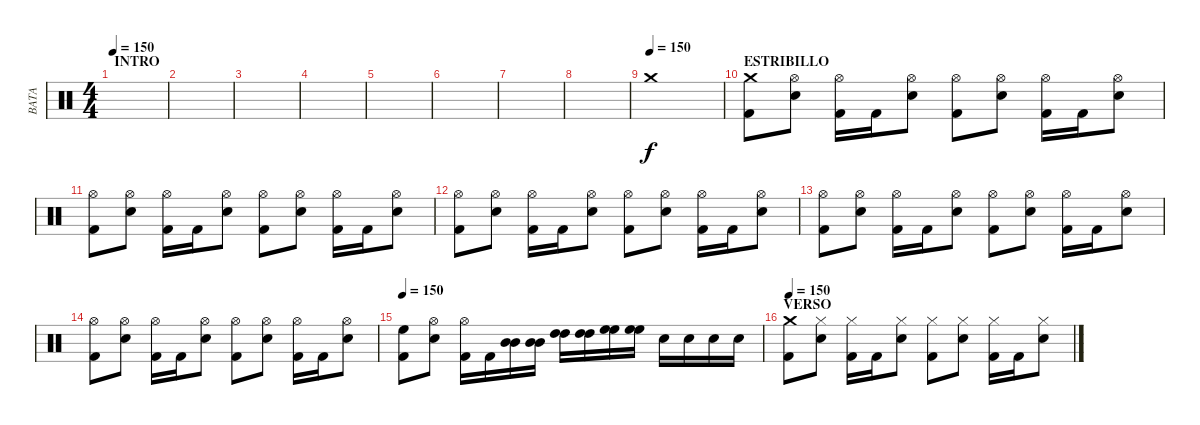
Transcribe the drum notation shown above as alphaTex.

\track ("BATA" "BATA") {instrument percussion}
\staff {score}
\articulation defaults
\ts (4 4)
\section ("" "INTRO")
\tempo 150
\clef neutral
\ks c
|
|
|
|
|
|
|
|
\tempo (150)
"Crash medium (hit)".1 |
\section ("" "ESTRIBILLO")
("Crash medium (hit)" "Kick (hit) 2").8 ("Hi-Hat (open)" "Snare (hit) 2").8 ("Hi-Hat (open)" "Kick (hit) 2").16 "Kick (hit) 2".16 ("Hi-Hat (open)" "Snare (hit) 2").8 ("Hi-Hat (open)" "Kick (hit) 2").8 ("Hi-Hat (open)" "Snare (hit) 2").8 ("Hi-Hat (open)" "Kick (hit) 2").16 "Kick (hit) 2".16 ("Hi-Hat (open)" "Snare (hit) 2").8 |
("Hi-Hat (open)" "Kick (hit) 2").8 ("Hi-Hat (open)" "Snare (hit) 2").8 ("Hi-Hat (open)" "Kick (hit) 2").16 "Kick (hit) 2".16 ("Hi-Hat (open)" "Snare (hit) 2").8 ("Hi-Hat (open)" "Kick (hit) 2").8 ("Hi-Hat (open)" "Snare (hit) 2").8 ("Hi-Hat (open)" "Kick (hit) 2").16 "Kick (hit) 2".16 ("Hi-Hat (open)" "Snare (hit) 2").8 |
("Hi-Hat (open)" "Kick (hit) 2").8 ("Hi-Hat (open)" "Snare (hit) 2").8 ("Hi-Hat (open)" "Kick (hit) 2").16 "Kick (hit) 2".16 ("Hi-Hat (open)" "Snare (hit) 2").8 ("Hi-Hat (open)" "Kick (hit) 2").8 ("Hi-Hat (open)" "Snare (hit) 2").8 ("Hi-Hat (open)" "Kick (hit) 2").16 "Kick (hit) 2".16 ("Hi-Hat (open)" "Snare (hit) 2").8 |
("Hi-Hat (open)" "Kick (hit) 2").8 ("Hi-Hat (open)" "Snare (hit) 2").8 ("Hi-Hat (open)" "Kick (hit) 2").16 "Kick (hit) 2".16 ("Hi-Hat (open)" "Snare (hit) 2").8 ("Hi-Hat (open)" "Kick (hit) 2").8 ("Hi-Hat (open)" "Snare (hit) 2").8 ("Hi-Hat (open)" "Kick (hit) 2").16 "Kick (hit) 2".16 ("Hi-Hat (open)" "Snare (hit) 2").8 |
("Hi-Hat (open)" "Kick (hit) 2").8 ("Hi-Hat (open)" "Snare (hit) 2").8 ("Hi-Hat (open)" "Kick (hit) 2").16 "Kick (hit) 2".16 ("Hi-Hat (open)" "Snare (hit) 2").8 ("Hi-Hat (open)" "Kick (hit) 2").8 ("Hi-Hat (open)" "Snare (hit) 2").8 ("Hi-Hat (open)" "Kick (hit) 2").16 "Kick (hit) 2".16 ("Hi-Hat (open)" "Snare (hit) 2").8 |
\tempo 150
("High Floor Tom (hit)" "Kick (hit) 2").8 ("Hi-Hat (open)" "Snare (hit) 2").8 ("Hi-Hat (open)" "Kick (hit) 2").16 "Kick (hit) 2".16 ("Mid Tom (hit)" "Mid Tom (hit)").16 ("Mid Tom (hit)" "Mid Tom (hit)").16 ("High Tom (hit)" "High Tom (hit)").16 ("High Tom (hit)" "High Tom (hit)").16 ("High Floor Tom (hit)" "High Floor Tom (hit)").16 ("High Floor Tom (hit)" "High Floor Tom (hit)").16 "Snare (hit) 2".16 "Snare (hit) 2".16 "Snare (hit) 2".16 "Snare (hit) 2".16 |
\section ("" "VERSO")
\tempo 150
("Crash medium (hit)" "Kick (hit) 2").8 ("Hi-Hat (closed)" "Snare (hit) 2").8 ("Hi-Hat (closed)" "Kick (hit) 2").16 "Kick (hit) 2".16 ("Hi-Hat (closed)" "Snare (hit) 2").8 ("Hi-Hat (closed)" "Kick (hit) 2").8 ("Hi-Hat (closed)" "Snare (hit) 2").8 ("Hi-Hat (closed)" "Kick (hit) 2").16 "Kick (hit) 2".16 ("Hi-Hat (closed)" "Snare (hit) 2").8
